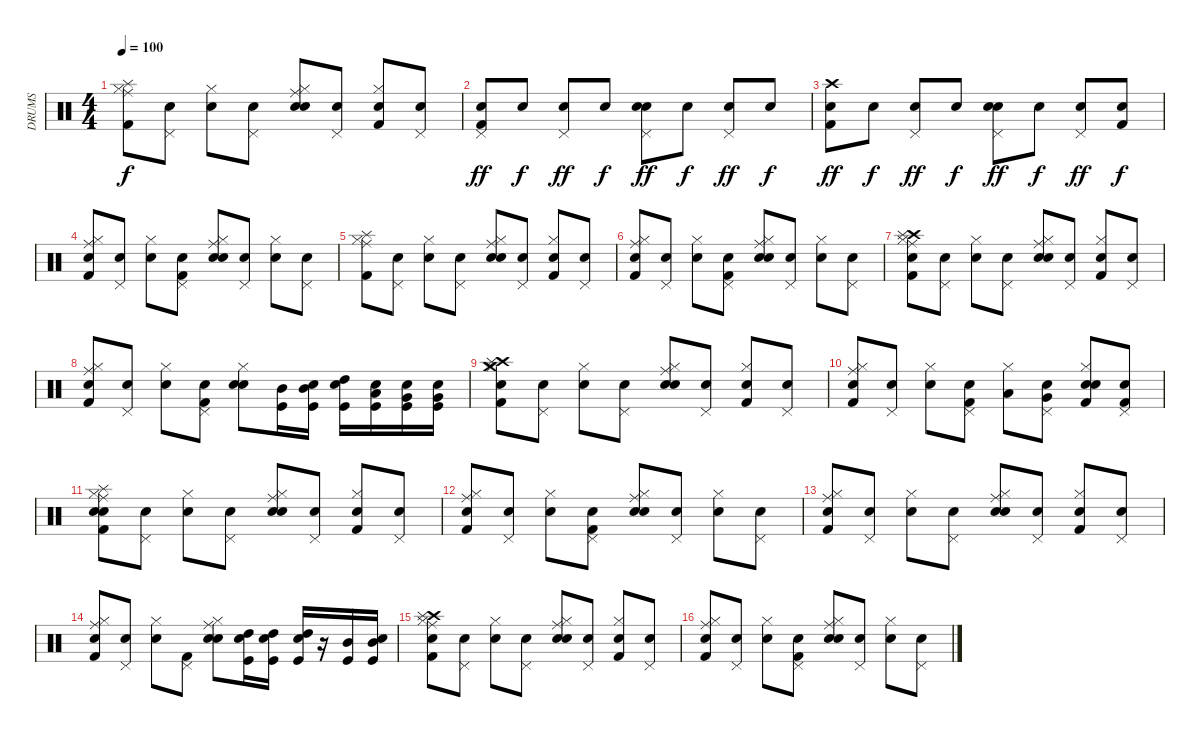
\track ("DRUMS" "DRUMS") {instrument percussion}
\staff {score}
\articulation defaults
\ts (4 4)
\tempo 100
\clef neutral
\ks c
("Splash (hit)" "Kick (hit) 2" "Ride (middle)" "Hi-Hat (closed)").8{dy f} ("Snare (hit)" "Pedal Hi-Hat (hit)").8 ("Snare (hit)" "Hi-Hat (closed)").8 ("Snare (hit)" "Pedal Hi-Hat (hit)").8 ("Snare (hit)" "Ride (middle)" "Hi-Hat (closed)" "Snare (hit) 2").8 ("Snare (hit)" "Pedal Hi-Hat (hit)").8 ("Snare (hit)" "Hi-Hat (closed)" "Kick (hit) 2").8 ("Snare (hit)" "Pedal Hi-Hat (hit)").8 |
("Snare (hit)" "Kick (hit) 2" "Pedal Hi-Hat (hit)").8{dy ff} "Snare (hit)".8{dy f} ("Snare (hit)" "Pedal Hi-Hat (hit)").8{dy ff} "Snare (hit)".8{dy f} ("Snare (hit)" "Electric Snare (hit)" "Pedal Hi-Hat (hit)").8{dy ff} "Snare (hit)".8{dy f} ("Snare (hit)" "Pedal Hi-Hat (hit)").8{dy ff} "Snare (hit)".8{dy f} |
("Snare (hit)" "Kick (hit) 2" "Crash high (hit)").8{dy ff} "Snare (hit)".8{dy f} ("Snare (hit)" "Pedal Hi-Hat (hit)").8{dy ff} "Snare (hit)".8{dy f} ("Snare (hit)" "Electric Snare (hit)" "Pedal Hi-Hat (hit)").8{dy ff} "Snare (hit)".8{dy f} ("Snare (hit)" "Pedal Hi-Hat (hit)").8{dy ff} ("Snare (hit)" "Kick (hit) 2").8{dy f} |
("Snare (hit)" "Ride (middle)" "Hi-Hat (closed)" "Kick (hit) 2").8 ("Snare (hit)" "Pedal Hi-Hat (hit)").8 ("Snare (hit)" "Hi-Hat (closed)").8 ("Snare (hit)" "Pedal Hi-Hat (hit)" "Kick (hit) 2").8 ("Snare (hit)" "Ride (middle)" "Hi-Hat (closed)" "Snare (hit) 2").8 ("Snare (hit)" "Pedal Hi-Hat (hit)").8 ("Snare (hit)" "Hi-Hat (closed)").8 ("Snare (hit)" "Pedal Hi-Hat (hit)").8 |
("Splash (hit)" "Kick (hit) 2" "Ride (middle)" "Hi-Hat (closed)").8 ("Snare (hit)" "Pedal Hi-Hat (hit)").8 ("Snare (hit)" "Hi-Hat (closed)").8 ("Snare (hit)" "Pedal Hi-Hat (hit)").8 ("Snare (hit)" "Ride (middle)" "Hi-Hat (closed)" "Snare (hit) 2").8 ("Snare (hit)" "Pedal Hi-Hat (hit)").8 ("Snare (hit)" "Hi-Hat (closed)" "Kick (hit) 2").8 ("Snare (hit)" "Pedal Hi-Hat (hit)").8 |
("Snare (hit)" "Ride (middle)" "Hi-Hat (closed)" "Kick (hit) 2").8 ("Snare (hit)" "Pedal Hi-Hat (hit)").8 ("Snare (hit)" "Hi-Hat (closed)").8 ("Snare (hit)" "Pedal Hi-Hat (hit)" "Kick (hit) 2").8 ("Snare (hit)" "Ride (middle)" "Hi-Hat (closed)" "Snare (hit) 2").8 ("Snare (hit)" "Pedal Hi-Hat (hit)").8 ("Snare (hit)" "Hi-Hat (closed)").8 ("Snare (hit)" "Pedal Hi-Hat (hit)").8 |
("Snare (hit)" "Hi-Hat (closed)" "Ride (middle)" "Kick (hit) 2" "Crash high (hit)" "Splash (hit)").8 ("Snare (hit)" "Pedal Hi-Hat (hit)").8 ("Snare (hit)" "Hi-Hat (closed)").8 ("Snare (hit)" "Pedal Hi-Hat (hit)").8 ("Snare (hit)" "Ride (middle)" "Hi-Hat (closed)" "Snare (hit) 2").8 ("Snare (hit)" "Pedal Hi-Hat (hit)").8 ("Snare (hit)" "Hi-Hat (closed)" "Kick (hit) 2").8 ("Snare (hit)" "Pedal Hi-Hat (hit)").8 |
("Snare (hit)" "Ride (middle)" "Hi-Hat (closed)" "Kick (hit) 2").8 ("Snare (hit)" "Pedal Hi-Hat (hit)").8 ("Snare (hit)" "Hi-Hat (closed)").8 ("Snare (hit)" "Pedal Hi-Hat (hit)" "Kick (hit) 2").8 ("Snare (hit)" "Hi-Hat (closed)" "Snare (hit) 2").8 ("Kick (hit)" "Mid Tom (hit)").16 ("Snare (hit)" "Kick (hit)" "Mid Tom (hit)").16 ("Snare (hit)" "Kick (hit)" "High Tom (hit)").16 ("Snare (hit)" "Kick (hit)" "Low Tom (hit)").16 ("Snare (hit)" "Very Low Tom (hit)" "Kick (hit)").16 ("Snare (hit)" "Very Low Tom (hit)" "Kick (hit)").16 |
("Snare (hit)" "Crash medium (hit)" "Crash high (hit)" "Splash (hit)" "Kick (hit) 2" "Hi-Hat (closed)").8 ("Snare (hit)" "Pedal Hi-Hat (hit)").8 ("Snare (hit)" "Hi-Hat (closed)").8 ("Snare (hit)" "Pedal Hi-Hat (hit)").8 ("Snare (hit)" "Ride (middle)" "Hi-Hat (closed)" "Snare (hit) 2").8 ("Snare (hit)" "Pedal Hi-Hat (hit)").8 ("Snare (hit)" "Hi-Hat (closed)" "Kick (hit) 2").8 ("Snare (hit)" "Pedal Hi-Hat (hit)").8 |
("Snare (hit)" "Ride (middle)" "Hi-Hat (closed)" "Kick (hit) 2").8 ("Snare (hit)" "Pedal Hi-Hat (hit)").8 ("Snare (hit)" "Hi-Hat (closed)").8 ("Snare (hit)" "Pedal Hi-Hat (hit)" "Kick (hit) 2").8 ("Hi-Hat (closed)" "Low Tom (hit)").8 ("Snare (hit)" "Pedal Hi-Hat (hit)" "Very Low Tom (hit)").8 ("Snare (hit)" "Hi-Hat (closed)" "Snare (hit) 2" "Kick (hit) 2").8 ("Pedal Hi-Hat (hit)" "Snare (hit) 2" "Kick (hit) 2").8 |
("Snare (hit)" "Ride (middle)" "Hi-Hat (closed)" "Kick (hit) 2" "Snare (hit) 2" "Splash (hit)").8 ("Snare (hit)" "Pedal Hi-Hat (hit)").8 ("Snare (hit)" "Hi-Hat (closed)").8 ("Snare (hit)" "Pedal Hi-Hat (hit)").8 ("Snare (hit)" "Ride (middle)" "Hi-Hat (closed)" "Snare (hit) 2").8 ("Snare (hit)" "Pedal Hi-Hat (hit)").8 ("Snare (hit)" "Hi-Hat (closed)" "Kick (hit) 2").8 ("Snare (hit)" "Pedal Hi-Hat (hit)").8 |
("Snare (hit)" "Ride (middle)" "Hi-Hat (closed)" "Kick (hit) 2").8 ("Snare (hit)" "Pedal Hi-Hat (hit)").8 ("Snare (hit)" "Hi-Hat (closed)").8 ("Snare (hit)" "Pedal Hi-Hat (hit)" "Kick (hit) 2").8 ("Snare (hit)" "Ride (middle)" "Hi-Hat (closed)" "Snare (hit) 2").8 ("Snare (hit)" "Pedal Hi-Hat (hit)").8 ("Snare (hit)" "Hi-Hat (closed)").8 ("Snare (hit)" "Pedal Hi-Hat (hit)").8 |
("Snare (hit)" "Kick (hit) 2" "Ride (middle)" "Hi-Hat (closed)").8 ("Snare (hit)" "Pedal Hi-Hat (hit)").8 ("Snare (hit)" "Hi-Hat (closed)").8 ("Snare (hit)" "Pedal Hi-Hat (hit)").8 ("Snare (hit)" "Ride (middle)" "Hi-Hat (closed)" "Snare (hit) 2").8 ("Snare (hit)" "Pedal Hi-Hat (hit)").8 ("Snare (hit)" "Hi-Hat (closed)" "Kick (hit) 2").8 ("Snare (hit)" "Pedal Hi-Hat (hit)").8 |
("Snare (hit)" "Ride (middle)" "Hi-Hat (closed)" "Kick (hit) 2").8 ("Snare (hit)" "Pedal Hi-Hat (hit)").8 ("Snare (hit)" "Hi-Hat (closed)").8 ("Kick (hit) 2" "Pedal Hi-Hat (hit)").8 ("Snare (hit)" "Snare (hit) 2" "Ride (middle)" "Hi-Hat (closed)").8 ("Snare (hit)" "Kick (hit)" "High Tom (hit)").16 ("Snare (hit)" "Kick (hit)" "High Tom (hit)").16 ("Snare (hit)" "Kick (hit)" "High Tom (hit)").16 r.16 ("Kick (hit)" "Mid Tom (hit)").16 ("Snare (hit)" "Kick (hit)" "Mid Tom (hit)").16 |
("Snare (hit)" "Hi-Hat (closed)" "Ride (middle)" "Kick (hit) 2" "Crash high (hit)" "Splash (hit)").8 ("Snare (hit)" "Pedal Hi-Hat (hit)").8 ("Snare (hit)" "Hi-Hat (closed)").8 ("Snare (hit)" "Pedal Hi-Hat (hit)").8 ("Snare (hit)" "Ride (middle)" "Hi-Hat (closed)" "Snare (hit) 2").8 ("Snare (hit)" "Pedal Hi-Hat (hit)").8 ("Snare (hit)" "Hi-Hat (closed)" "Kick (hit) 2").8 ("Snare (hit)" "Pedal Hi-Hat (hit)").8 |
("Snare (hit)" "Ride (middle)" "Hi-Hat (closed)" "Kick (hit) 2").8 ("Snare (hit)" "Pedal Hi-Hat (hit)").8 ("Snare (hit)" "Hi-Hat (closed)").8 ("Snare (hit)" "Pedal Hi-Hat (hit)" "Kick (hit) 2").8 ("Snare (hit)" "Ride (middle)" "Hi-Hat (closed)" "Snare (hit) 2").8 ("Snare (hit)" "Pedal Hi-Hat (hit)").8 ("Snare (hit)" "Hi-Hat (closed)").8 ("Snare (hit)" "Pedal Hi-Hat (hit)").8
